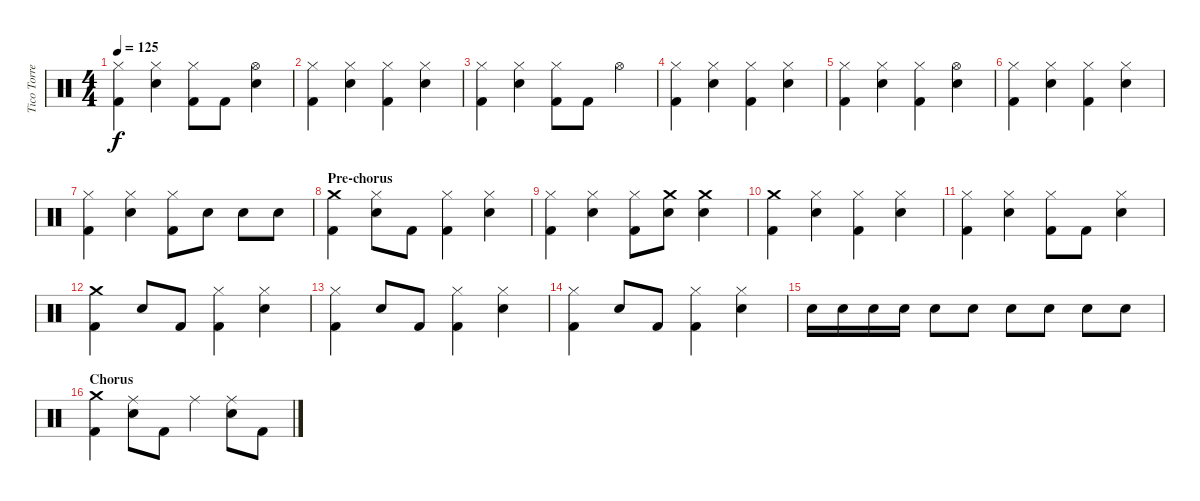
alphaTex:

\track ("Tico Torres" "Tico Torre") {instrument percussion}
\staff {score}
\articulation defaults
\ts (4 4)
\tempo 125
\clef neutral
\ks c
("Hi-Hat (closed)" "Kick (hit) 2").4{dy f} ("Hi-Hat (closed)" "Snare (hit) 2").4 ("Hi-Hat (closed)" "Kick (hit) 2").8 "Kick (hit) 2".8 ("Hi-Hat (open)" "Snare (hit) 2").4 |
("Hi-Hat (closed)" "Kick (hit) 2").4 ("Hi-Hat (closed)" "Snare (hit) 2").4 ("Hi-Hat (closed)" "Kick (hit) 2").4 ("Hi-Hat (closed)" "Snare (hit) 2").4 |
("Hi-Hat (closed)" "Kick (hit) 2").4 ("Hi-Hat (closed)" "Snare (hit) 2").4 ("Hi-Hat (closed)" "Kick (hit) 2").8 "Kick (hit) 2".8 "Hi-Hat (open)".4 |
("Hi-Hat (closed)" "Kick (hit) 2").4 ("Hi-Hat (closed)" "Snare (hit) 2").4 ("Hi-Hat (closed)" "Kick (hit) 2").4 ("Hi-Hat (closed)" "Snare (hit) 2").4 |
("Hi-Hat (closed)" "Kick (hit) 2").4 ("Hi-Hat (closed)" "Snare (hit) 2").4 ("Hi-Hat (closed)" "Kick (hit) 2").4 ("Hi-Hat (open)" "Snare (hit) 2").4 |
("Hi-Hat (closed)" "Kick (hit) 2").4 ("Hi-Hat (closed)" "Snare (hit) 2").4 ("Hi-Hat (closed)" "Kick (hit) 2").4 ("Hi-Hat (closed)" "Snare (hit) 2").4 |
("Hi-Hat (closed)" "Kick (hit) 2").4 ("Hi-Hat (closed)" "Snare (hit) 2").4 ("Hi-Hat (closed)" "Kick (hit) 2").8 "Snare (hit) 2".8 "Snare (hit) 2".8 "Snare (hit) 2".8 |
\section ("" "Pre-chorus")
("Crash medium (hit)" "Kick (hit) 2").4 ("Hi-Hat (closed)" "Snare (hit) 2").8 "Kick (hit) 2".8 ("Hi-Hat (closed)" "Kick (hit) 2").4 ("Hi-Hat (closed)" "Snare (hit) 2").4 |
("Hi-Hat (closed)" "Kick (hit) 2").4 ("Hi-Hat (closed)" "Snare (hit) 2").4 ("Hi-Hat (closed)" "Kick (hit) 2").8 ("Crash medium (hit)" "Snare (hit) 2").8 ("Crash medium (hit)" "Snare (hit) 2").4 |
("Crash medium (hit)" "Kick (hit) 2").4 ("Hi-Hat (closed)" "Snare (hit) 2").4 ("Hi-Hat (closed)" "Kick (hit) 2").4 ("Hi-Hat (closed)" "Snare (hit) 2").4 |
("Hi-Hat (closed)" "Kick (hit) 2").4 ("Hi-Hat (closed)" "Snare (hit) 2").4 ("Hi-Hat (closed)" "Kick (hit) 2").8 "Kick (hit) 2".8 ("Hi-Hat (closed)" "Snare (hit) 2").4 |
("Crash medium (hit)" "Kick (hit) 2").4 "Snare (hit) 2".8 "Kick (hit) 2".8 ("Hi-Hat (closed)" "Kick (hit) 2").4 ("Hi-Hat (closed)" "Snare (hit) 2").4 |
("Hi-Hat (closed)" "Kick (hit) 2").4 "Snare (hit) 2".8 "Kick (hit) 2".8 ("Hi-Hat (closed)" "Kick (hit) 2").4 ("Hi-Hat (closed)" "Snare (hit) 2").4 |
("Hi-Hat (closed)" "Kick (hit) 2").4 "Snare (hit) 2".8 "Kick (hit) 2".8 ("Hi-Hat (closed)" "Kick (hit) 2").4 ("Hi-Hat (closed)" "Snare (hit) 2").4 |
"Snare (hit) 2".16 "Snare (hit) 2".16 "Snare (hit) 2".16 "Snare (hit) 2".16 "Snare (hit) 2".8 "Snare (hit) 2".8 "Snare (hit) 2".8 "Snare (hit) 2".8 "Snare (hit) 2".8 "Snare (hit) 2".8 |
\section ("" "Chorus")
("Crash medium (hit)" "Kick (hit) 2").4 ("Ride (middle)" "Snare (hit) 2").8 "Kick (hit) 2".8 "Ride (middle)".4 ("Ride (middle)" "Snare (hit) 2").8 "Kick (hit) 2".8
